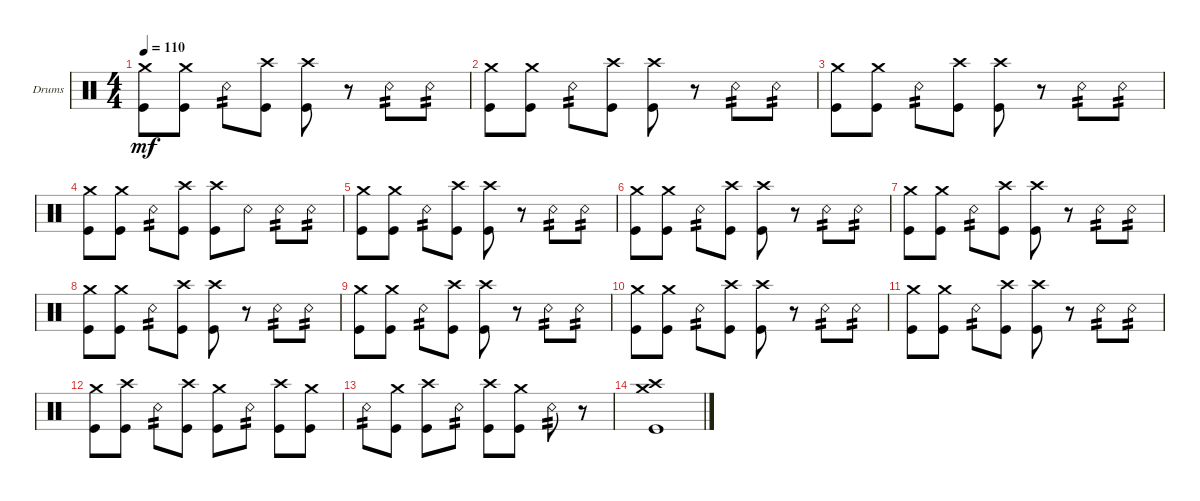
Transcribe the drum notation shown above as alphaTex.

\defaultSystemsLayout 4
\bracketExtendMode groupsimilarinstruments
\firstSystemTrackNameOrientation horizontal
\otherSystemsTrackNameOrientation horizontal
\track ("Drumkit" "Drums") {instrument percussion}
\staff {score}
\articulation defaults
\ts (4 4)
\tempo 110
\clef neutral
\scale
0.333333
\ks c
("Kick (hit)" "Crash medium (hit)").8{dy mf} ("Kick (hit)" "Crash medium (hit)").8 "Snare (rim shot)".8{tp 2} ("Kick (hit)" "Crash high (hit)").8 ("Kick (hit)" "Crash high (hit)").8 r.8 "Snare (rim shot)".8{tp 2} "Snare (rim shot)".8{tp 2} |
\scale
0.333333 ("Kick (hit)" "Crash medium (hit)").8 ("Kick (hit)" "Crash medium (hit)").8 "Snare (rim shot)".8{tp 2} ("Kick (hit)" "Crash high (hit)").8 ("Kick (hit)" "Crash high (hit)").8 r.8 "Snare (rim shot)".8{tp 2} "Snare (rim shot)".8{tp 2} |
\scale
0.333333 ("Kick (hit)" "Crash medium (hit)").8 ("Kick (hit)" "Crash medium (hit)").8 "Snare (rim shot)".8{tp 2} ("Kick (hit)" "Crash high (hit)").8 ("Kick (hit)" "Crash high (hit)").8 r.8 "Snare (rim shot)".8{tp 2} "Snare (rim shot)".8{tp 2} |
\scale
0.333333 ("Kick (hit)" "Crash medium (hit)").8 ("Kick (hit)" "Crash medium (hit)").8 "Snare (rim shot)".8{tp 2} ("Kick (hit)" "Crash high (hit)").8 ("Kick (hit)" "Crash high (hit)").8 "Snare (rim shot)".8 "Snare (rim shot)".8{tp 2} "Snare (rim shot)".8{tp 2} |
\scale
0.333333 ("Kick (hit)" "Crash medium (hit)").8 ("Kick (hit)" "Crash medium (hit)").8 "Snare (rim shot)".8{tp 2} ("Kick (hit)" "Crash high (hit)").8 ("Kick (hit)" "Crash high (hit)").8 r.8 "Snare (rim shot)".8{tp 2} "Snare (rim shot)".8{tp 2} |
\scale
0.333333 ("Kick (hit)" "Crash medium (hit)").8 ("Kick (hit)" "Crash medium (hit)").8 "Snare (rim shot)".8{tp 2} ("Kick (hit)" "Crash high (hit)").8 ("Kick (hit)" "Crash high (hit)").8 r.8 "Snare (rim shot)".8{tp 2} "Snare (rim shot)".8{tp 2} |
\scale
0.333333 ("Kick (hit)" "Crash medium (hit)").8 ("Kick (hit)" "Crash medium (hit)").8 "Snare (rim shot)".8{tp 2} ("Kick (hit)" "Crash high (hit)").8 ("Kick (hit)" "Crash high (hit)").8 r.8 "Snare (rim shot)".8{tp 2} "Snare (rim shot)".8{tp 2} |
\scale
0.333333 ("Kick (hit)" "Crash medium (hit)").8 ("Kick (hit)" "Crash medium (hit)").8 "Snare (rim shot)".8{tp 2} ("Kick (hit)" "Crash high (hit)").8 ("Kick (hit)" "Crash high (hit)").8 r.8 "Snare (rim shot)".8{tp 2} "Snare (rim shot)".8{tp 2} |
\scale
0.333333 ("Kick (hit)" "Crash medium (hit)").8 ("Kick (hit)" "Crash medium (hit)").8 "Snare (rim shot)".8{tp 2} ("Kick (hit)" "Crash high (hit)").8 ("Kick (hit)" "Crash high (hit)").8 r.8 "Snare (rim shot)".8{tp 2} "Snare (rim shot)".8{tp 2} |
\scale
0.333333 ("Kick (hit)" "Crash medium (hit)").8 ("Kick (hit)" "Crash medium (hit)").8 "Snare (rim shot)".8{tp 2} ("Kick (hit)" "Crash high (hit)").8 ("Kick (hit)" "Crash high (hit)").8 r.8 "Snare (rim shot)".8{tp 2} "Snare (rim shot)".8{tp 2} |
\scale
0.333333 ("Kick (hit)" "Crash medium (hit)").8 ("Kick (hit)" "Crash medium (hit)").8 "Snare (rim shot)".8{tp 2} ("Kick (hit)" "Crash high (hit)").8 ("Kick (hit)" "Crash high (hit)").8 r.8 "Snare (rim shot)".8{tp 2} "Snare (rim shot)".8{tp 2} |
\scale
0.333333 ("Kick (hit)" "Crash medium (hit)").8 ("Kick (hit)" "Crash high (hit)").8 "Snare (rim shot)".8{tp 2} ("Kick (hit)" "Crash high (hit)").8 ("Kick (hit)" "Crash medium (hit)").8 "Snare (rim shot)".8{tp 2} ("Kick (hit)" "Crash high (hit)").8 ("Kick (hit)" "Crash medium (hit)").8 |
\scale
0.333333 "Snare (rim shot)".8{tp 2} ("Kick (hit)" "Crash medium (hit)").8 ("Kick (hit)" "Crash high (hit)").8 "Snare (rim shot)".8{tp 2} ("Kick (hit)" "Crash high (hit)").8 ("Kick (hit)" "Crash medium (hit)").8 "Snare (rim shot)".8{tp 2} r.8 |
\scale
0.333333 ("Kick (hit)" "Crash medium (hit)" "Crash high (hit)").1 |
\scale
0.333333 |
\scale
0.333333
